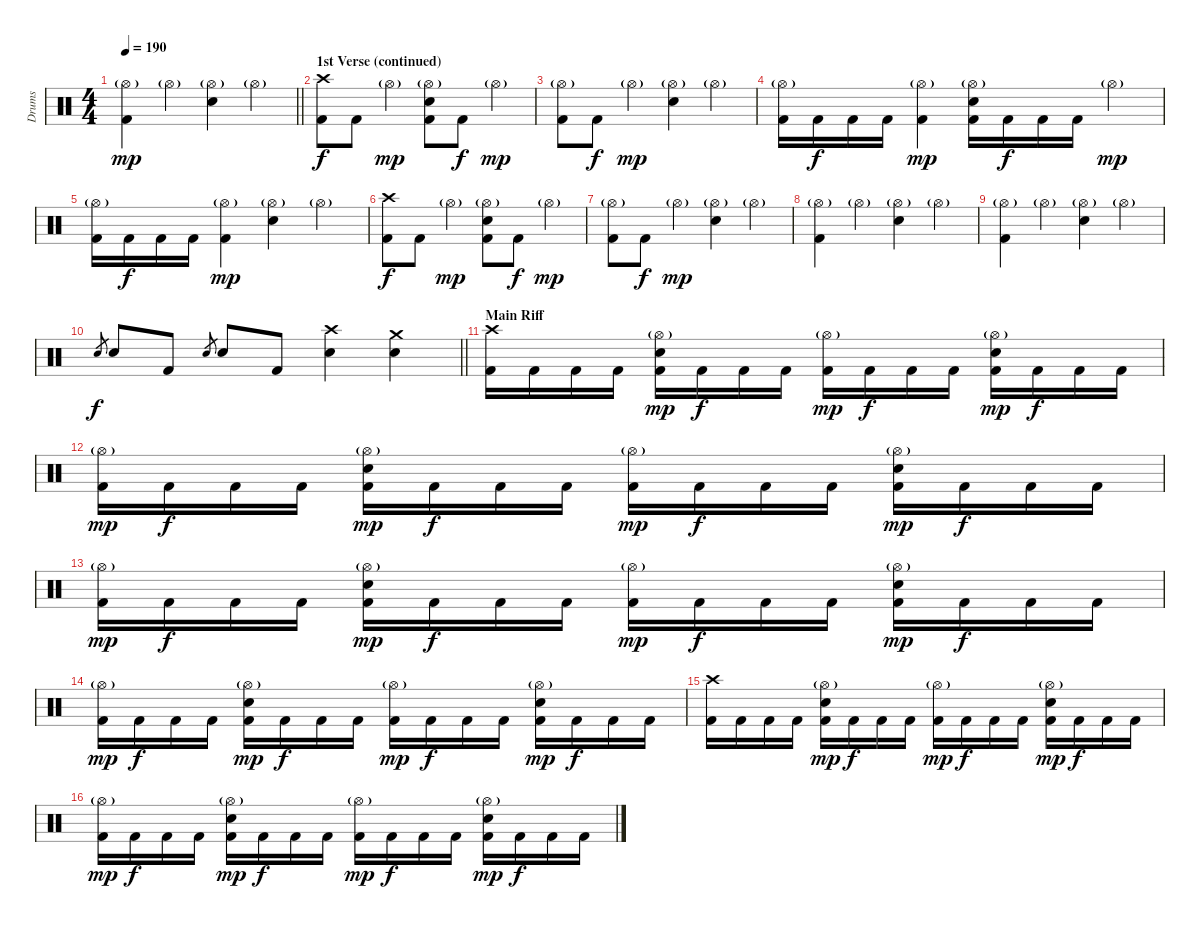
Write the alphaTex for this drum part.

\track ("Drums" "Drums") {instrument percussion}
\staff {score}
\articulation defaults
\ts (4 4)
\tempo 190
\clef neutral
\barLineRight lightlight
\ks c
("Hi-Hat (open)"{g} "Kick (hit) 2").4{dy mp} "Hi-Hat (open)"{g}.4 ("Hi-Hat (open)"{g} "Electric Snare (hit)").4 "Hi-Hat (open)"{g}.4 |
\section ("" "1st Verse (continued)")
("Crash high (hit)" "Kick (hit) 2").8{dy f} "Kick (hit) 2".8 "Hi-Hat (open)"{g}.4{dy mp} ("Hi-Hat (open)"{g} "Electric Snare (hit)" "Kick (hit) 2").8 "Kick (hit) 2".8{dy f} "Hi-Hat (open)"{g}.4{dy mp} |
("Hi-Hat (open)"{g} "Kick (hit) 2").8 "Kick (hit) 2".8{dy f} "Hi-Hat (open)"{g}.4{dy mp} ("Hi-Hat (open)"{g} "Electric Snare (hit)").4 "Hi-Hat (open)"{g}.4 |
("Hi-Hat (open)"{g} "Kick (hit) 2").16 "Kick (hit) 2".16{dy f} "Kick (hit) 2".16 "Kick (hit) 2".16 ("Hi-Hat (open)"{g} "Kick (hit) 2").4{dy mp} ("Hi-Hat (open)"{g} "Electric Snare (hit)" "Kick (hit) 2").16 "Kick (hit) 2".16{dy f} "Kick (hit) 2".16 "Kick (hit) 2".16 "Hi-Hat (open)"{g}.4{dy mp} |
("Hi-Hat (open)"{g} "Kick (hit) 2").16 "Kick (hit) 2".16{dy f} "Kick (hit) 2".16 "Kick (hit) 2".16 ("Hi-Hat (open)"{g} "Kick (hit) 2").4{dy mp} ("Hi-Hat (open)"{g} "Electric Snare (hit)").4 "Hi-Hat (open)"{g}.4 |
("Crash high (hit)" "Kick (hit) 2").8{dy f} "Kick (hit) 2".8 "Hi-Hat (open)"{g}.4{dy mp} ("Hi-Hat (open)"{g} "Electric Snare (hit)" "Kick (hit) 2").8 "Kick (hit) 2".8{dy f} "Hi-Hat (open)"{g}.4{dy mp} |
("Hi-Hat (open)"{g} "Kick (hit) 2").8 "Kick (hit) 2".8{dy f} "Hi-Hat (open)"{g}.4{dy mp} ("Hi-Hat (open)"{g} "Electric Snare (hit)").4 "Hi-Hat (open)"{g}.4 |
("Hi-Hat (open)"{g} "Kick (hit) 2").4 "Hi-Hat (open)"{g}.4 ("Hi-Hat (open)"{g} "Electric Snare (hit)").4 "Hi-Hat (open)"{g}.4 |
("Hi-Hat (open)"{g} "Kick (hit) 2").4 "Hi-Hat (open)"{g}.4 ("Hi-Hat (open)"{g} "Electric Snare (hit)").4 "Hi-Hat (open)"{g}.4 |
\barLineRight lightlight "Electric Snare (hit)".8{gr dy f} "Electric Snare (hit)".8 "Kick (hit) 2".8 "Electric Snare (hit)".8{gr} "Electric Snare (hit)".8 "Kick (hit) 2".8
("Crash high (hit)" "Electric Snare (hit)").4 ("Crash medium (hit)" "Electric Snare (hit)").4 |
\section ("" "Main Riff")
("Crash high (hit)" "Kick (hit) 2").16 "Kick (hit) 2".16 "Kick (hit) 2".16 "Kick (hit) 2".16 ("Hi-Hat (open)"{g} "Electric Snare (hit)" "Kick (hit) 2").16{dy mp} "Kick (hit) 2".16{dy f} "Kick (hit) 2".16 "Kick (hit) 2".16 ("Hi-Hat (open)"{g} "Kick (hit) 2").16{dy mp} "Kick (hit) 2".16{dy f} "Kick (hit) 2".16 "Kick (hit) 2".16 ("Hi-Hat (open)"{g} "Electric Snare (hit)" "Kick (hit) 2").16{dy mp} "Kick (hit) 2".16{dy f} "Kick (hit) 2".16 "Kick (hit) 2".16 |
("Hi-Hat (open)"{g} "Kick (hit) 2").16{dy mp} "Kick (hit) 2".16{dy f} "Kick (hit) 2".16 "Kick (hit) 2".16 ("Hi-Hat (open)"{g} "Electric Snare (hit)" "Kick (hit) 2").16{dy mp} "Kick (hit) 2".16{dy f} "Kick (hit) 2".16 "Kick (hit) 2".16 ("Hi-Hat (open)"{g} "Kick (hit) 2").16{dy mp} "Kick (hit) 2".16{dy f} "Kick (hit) 2".16 "Kick (hit) 2".16 ("Hi-Hat (open)"{g} "Electric Snare (hit)" "Kick (hit) 2").16{dy mp} "Kick (hit) 2".16{dy f} "Kick (hit) 2".16 "Kick (hit) 2".16 |
("Hi-Hat (open)"{g} "Kick (hit) 2").16{dy mp} "Kick (hit) 2".16{dy f} "Kick (hit) 2".16 "Kick (hit) 2".16 ("Hi-Hat (open)"{g} "Electric Snare (hit)" "Kick (hit) 2").16{dy mp} "Kick (hit) 2".16{dy f} "Kick (hit) 2".16 "Kick (hit) 2".16 ("Hi-Hat (open)"{g} "Kick (hit) 2").16{dy mp} "Kick (hit) 2".16{dy f} "Kick (hit) 2".16 "Kick (hit) 2".16 ("Hi-Hat (open)"{g} "Electric Snare (hit)" "Kick (hit) 2").16{dy mp} "Kick (hit) 2".16{dy f} "Kick (hit) 2".16 "Kick (hit) 2".16 |
("Hi-Hat (open)"{g} "Kick (hit) 2").16{dy mp} "Kick (hit) 2".16{dy f} "Kick (hit) 2".16 "Kick (hit) 2".16 ("Hi-Hat (open)"{g} "Electric Snare (hit)" "Kick (hit) 2").16{dy mp} "Kick (hit) 2".16{dy f} "Kick (hit) 2".16 "Kick (hit) 2".16 ("Hi-Hat (open)"{g} "Kick (hit) 2").16{dy mp} "Kick (hit) 2".16{dy f} "Kick (hit) 2".16 "Kick (hit) 2".16 ("Hi-Hat (open)"{g} "Electric Snare (hit)" "Kick (hit) 2").16{dy mp} "Kick (hit) 2".16{dy f} "Kick (hit) 2".16 "Kick (hit) 2".16 |
("Crash high (hit)" "Kick (hit) 2").16 "Kick (hit) 2".16 "Kick (hit) 2".16 "Kick (hit) 2".16 ("Hi-Hat (open)"{g} "Electric Snare (hit)" "Kick (hit) 2").16{dy mp} "Kick (hit) 2".16{dy f} "Kick (hit) 2".16 "Kick (hit) 2".16 ("Hi-Hat (open)"{g} "Kick (hit) 2").16{dy mp} "Kick (hit) 2".16{dy f} "Kick (hit) 2".16 "Kick (hit) 2".16 ("Hi-Hat (open)"{g} "Electric Snare (hit)" "Kick (hit) 2").16{dy mp} "Kick (hit) 2".16{dy f} "Kick (hit) 2".16 "Kick (hit) 2".16 |
("Hi-Hat (open)"{g} "Kick (hit) 2").16{dy mp} "Kick (hit) 2".16{dy f} "Kick (hit) 2".16 "Kick (hit) 2".16 ("Hi-Hat (open)"{g} "Electric Snare (hit)" "Kick (hit) 2").16{dy mp} "Kick (hit) 2".16{dy f} "Kick (hit) 2".16 "Kick (hit) 2".16 ("Hi-Hat (open)"{g} "Kick (hit) 2").16{dy mp} "Kick (hit) 2".16{dy f} "Kick (hit) 2".16 "Kick (hit) 2".16 ("Hi-Hat (open)"{g} "Electric Snare (hit)" "Kick (hit) 2").16{dy mp} "Kick (hit) 2".16{dy f} "Kick (hit) 2".16 "Kick (hit) 2".16
